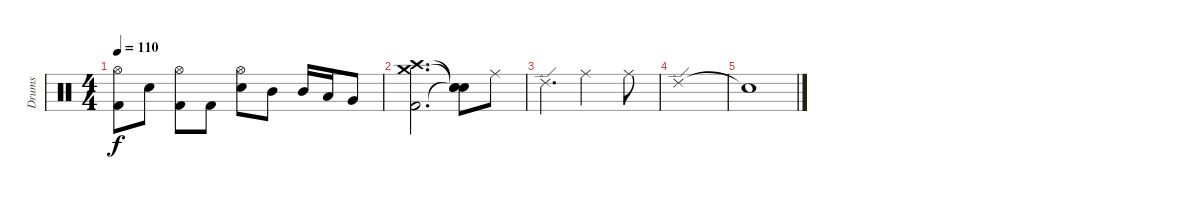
\track ("Drums" "Drums") {instrument percussion}
\staff {score}
\articulation defaults
\ts (4 4)
\tempo 110
\clef neutral
\ks c
("Hi-Hat (open)" "Kick (hit) 2").8{dy f} "Snare (hit) 2".8 ("Hi-Hat (open)" "Kick (hit) 2").8 "Kick (hit) 2".8 ("Hi-Hat (open)" "Snare (hit) 2").8 "Mid Tom (hit)".8 "Mid Tom (hit)".16 "Low Tom (hit)".16 "Very Low Tom (hit)".8 |
("Kick (hit) 2" "Crash medium (hit)" "Crash high (hit)").2{d} ("Snare (hit)"{t} "Snare (hit)"{t} "Snare (hit)"{t}).8 "Ride (middle)".8 |
"Ride (edge) 2".4{d} "Ride (middle)".2 "Ride (middle)".8 |
"Ride (edge) 2".1 |
"Snare (hit)"{t}.1
